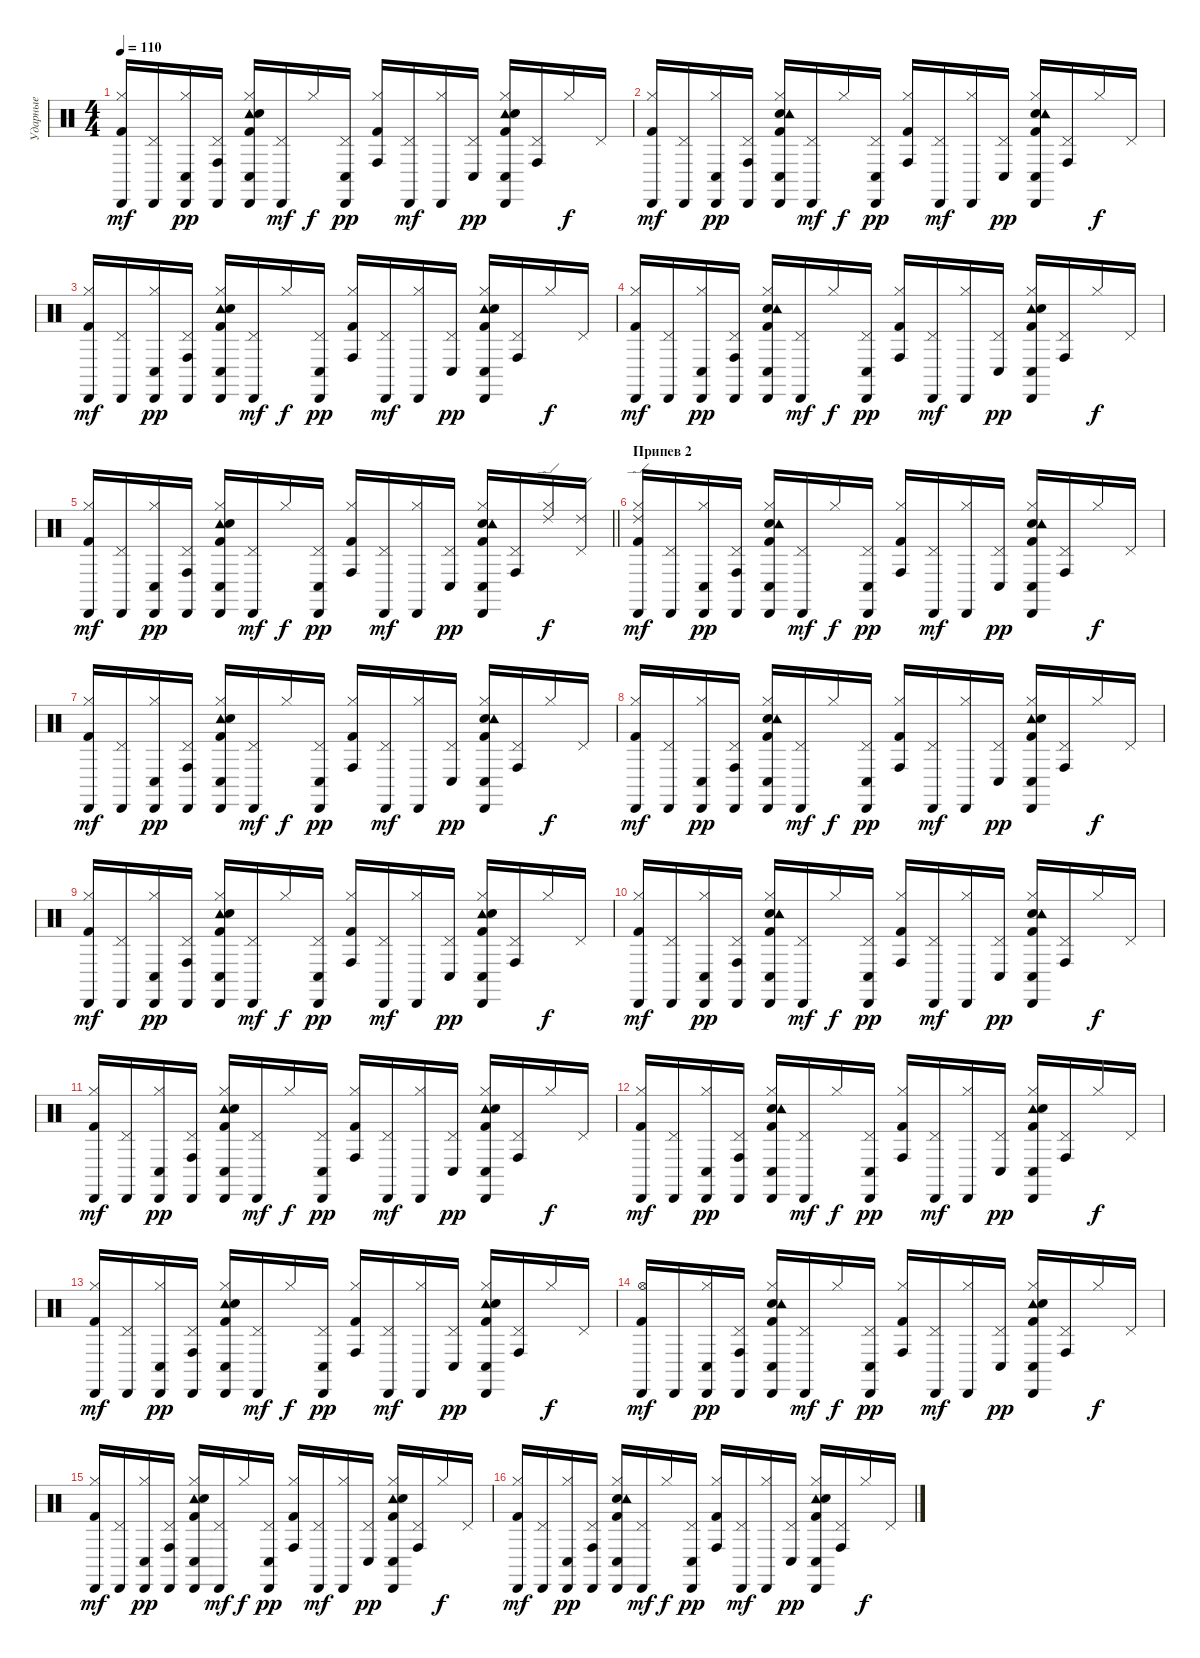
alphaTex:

\track ("Ударные" "Ударные") {instrument percussion}
\staff {score}
\articulation defaults
\ts (4 4)
\tempo 110
\clef neutral
\ks c
("Kick (hit) 2" "Hi-Hat (closed)" "Cabasa (hit)").16{dy mf} ("Pedal Hi-Hat (hit)" "Cabasa (hit)").16 ("Hi-Hat (closed)" "Cabasa (hit)" "Conga low (hit)").16{dy pp} ("Pedal Hi-Hat (hit)" "Cabasa (hit)" "Conga high (hit)").16 ("Tambourine (hit)" "Kick (hit) 2" "Snare (hit) 2" "Hi-Hat (closed)" "Cabasa (hit)" "Conga low (hit)").16 ("Pedal Hi-Hat (hit)" "Cabasa (hit)").16{dy mf} "Hi-Hat (closed)".16{dy f} ("Pedal Hi-Hat (hit)" "Cabasa (hit)" "Conga low (hit)").16{dy pp} ("Kick (hit) 2" "Hi-Hat (closed)" "Conga high (hit)").16 ("Pedal Hi-Hat (hit)" "Cabasa (hit)").16{dy mf} ("Hi-Hat (closed)" "Cabasa (hit)").16 ("Pedal Hi-Hat (hit)" "Conga low (hit)").16{dy pp} ("Tambourine (hit)" "Snare (hit) 2" "Kick (hit) 2" "Hi-Hat (closed)" "Cabasa (hit)" "Conga low (hit)").16 ("Pedal Hi-Hat (hit)" "Conga high (hit)").16 "Hi-Hat (closed)".16{dy f} "Pedal Hi-Hat (hit)".16 |
("Kick (hit) 2" "Hi-Hat (closed)" "Cabasa (hit)").16{dy mf} ("Pedal Hi-Hat (hit)" "Cabasa (hit)").16 ("Hi-Hat (closed)" "Cabasa (hit)" "Conga low (hit)").16{dy pp} ("Pedal Hi-Hat (hit)" "Cabasa (hit)" "Conga high (hit)").16 ("Snare (hit) 2" "Kick (hit) 2" "Tambourine (hit)" "Hi-Hat (closed)" "Cabasa (hit)" "Conga low (hit)").16 ("Pedal Hi-Hat (hit)" "Cabasa (hit)").16{dy mf} "Hi-Hat (closed)".16{dy f} ("Pedal Hi-Hat (hit)" "Cabasa (hit)" "Conga low (hit)").16{dy pp} ("Kick (hit) 2" "Hi-Hat (closed)" "Conga high (hit)").16 ("Pedal Hi-Hat (hit)" "Cabasa (hit)").16{dy mf} ("Hi-Hat (closed)" "Cabasa (hit)").16 ("Pedal Hi-Hat (hit)" "Conga low (hit)").16{dy pp} ("Snare (hit) 2" "Tambourine (hit)" "Kick (hit) 2" "Hi-Hat (closed)" "Cabasa (hit)" "Conga low (hit)").16 ("Pedal Hi-Hat (hit)" "Conga high (hit)").16 "Hi-Hat (closed)".16{dy f} "Pedal Hi-Hat (hit)".16 |
("Kick (hit) 2" "Hi-Hat (closed)" "Cabasa (hit)").16{dy mf} ("Pedal Hi-Hat (hit)" "Cabasa (hit)").16 ("Hi-Hat (closed)" "Cabasa (hit)" "Conga low (hit)").16{dy pp} ("Pedal Hi-Hat (hit)" "Cabasa (hit)" "Conga high (hit)").16 ("Tambourine (hit)" "Kick (hit) 2" "Snare (hit) 2" "Hi-Hat (closed)" "Cabasa (hit)" "Conga low (hit)").16 ("Pedal Hi-Hat (hit)" "Cabasa (hit)").16{dy mf} "Hi-Hat (closed)".16{dy f} ("Pedal Hi-Hat (hit)" "Cabasa (hit)" "Conga low (hit)").16{dy pp} ("Kick (hit) 2" "Hi-Hat (closed)" "Conga high (hit)").16 ("Pedal Hi-Hat (hit)" "Cabasa (hit)").16{dy mf} ("Hi-Hat (closed)" "Cabasa (hit)").16 ("Pedal Hi-Hat (hit)" "Conga low (hit)").16{dy pp} ("Tambourine (hit)" "Snare (hit) 2" "Kick (hit) 2" "Hi-Hat (closed)" "Cabasa (hit)" "Conga low (hit)").16 ("Pedal Hi-Hat (hit)" "Conga high (hit)").16 "Hi-Hat (closed)".16{dy f} "Pedal Hi-Hat (hit)".16 |
("Kick (hit) 2" "Hi-Hat (closed)" "Cabasa (hit)").16{dy mf} ("Pedal Hi-Hat (hit)" "Cabasa (hit)").16 ("Hi-Hat (closed)" "Cabasa (hit)" "Conga low (hit)").16{dy pp} ("Pedal Hi-Hat (hit)" "Cabasa (hit)" "Conga high (hit)").16 ("Kick (hit) 2" "Snare (hit) 2" "Tambourine (hit)" "Hi-Hat (closed)" "Cabasa (hit)" "Conga low (hit)").16 ("Pedal Hi-Hat (hit)" "Cabasa (hit)").16{dy mf} "Hi-Hat (closed)".16{dy f} ("Pedal Hi-Hat (hit)" "Cabasa (hit)" "Conga low (hit)").16{dy pp} ("Kick (hit) 2" "Hi-Hat (closed)" "Conga high (hit)").16 ("Pedal Hi-Hat (hit)" "Cabasa (hit)").16{dy mf} ("Hi-Hat (closed)" "Cabasa (hit)").16 ("Pedal Hi-Hat (hit)" "Conga low (hit)").16{dy pp} ("Tambourine (hit)" "Kick (hit) 2" "Snare (hit) 2" "Hi-Hat (closed)" "Cabasa (hit)" "Conga low (hit)").16 ("Pedal Hi-Hat (hit)" "Conga high (hit)").16 "Hi-Hat (closed)".16{dy f} "Pedal Hi-Hat (hit)".16 |
\barLineRight lightlight
("Kick (hit) 2" "Hi-Hat (closed)" "Cabasa (hit)").16{dy mf} ("Pedal Hi-Hat (hit)" "Cabasa (hit)").16 ("Hi-Hat (closed)" "Cabasa (hit)" "Conga low (hit)").16{dy pp} ("Pedal Hi-Hat (hit)" "Cabasa (hit)" "Conga high (hit)").16 ("Tambourine (hit)" "Snare (hit) 2" "Kick (hit) 2" "Hi-Hat (closed)" "Cabasa (hit)" "Conga low (hit)").16 ("Pedal Hi-Hat (hit)" "Cabasa (hit)").16{dy mf} "Hi-Hat (closed)".16{dy f} ("Pedal Hi-Hat (hit)" "Cabasa (hit)" "Conga low (hit)").16{dy pp} ("Kick (hit) 2" "Hi-Hat (closed)" "Conga high (hit)").16 ("Pedal Hi-Hat (hit)" "Cabasa (hit)").16{dy mf} ("Hi-Hat (closed)" "Cabasa (hit)").16 ("Pedal Hi-Hat (hit)" "Conga low (hit)").16{dy pp} ("Snare (hit) 2" "Tambourine (hit)" "Kick (hit) 2" "Hi-Hat (closed)" "Cabasa (hit)" "Conga low (hit)").16 ("Pedal Hi-Hat (hit)" "Conga high (hit)").16 ("Ride (edge) 2" "Hi-Hat (closed)").16{dy f} ("Ride (edge) 2" "Pedal Hi-Hat (hit)").16 |
\section ("" "Припев 2")
("Kick (hit) 2" "Hi-Hat (closed)" "Ride (edge) 2" "Cabasa (hit)").16{dy mf} ("Pedal Hi-Hat (hit)" "Cabasa (hit)").16 ("Hi-Hat (closed)" "Cabasa (hit)" "Conga low (hit)").16{dy pp} ("Pedal Hi-Hat (hit)" "Cabasa (hit)" "Conga high (hit)").16 ("Snare (hit) 2" "Kick (hit) 2" "Tambourine (hit)" "Hi-Hat (closed)" "Cabasa (hit)" "Conga low (hit)").16 ("Pedal Hi-Hat (hit)" "Cabasa (hit)").16{dy mf} "Hi-Hat (closed)".16{dy f} ("Pedal Hi-Hat (hit)" "Cabasa (hit)" "Conga low (hit)").16{dy pp} ("Kick (hit) 2" "Hi-Hat (closed)" "Conga high (hit)").16 ("Pedal Hi-Hat (hit)" "Cabasa (hit)").16{dy mf} ("Hi-Hat (closed)" "Cabasa (hit)").16 ("Pedal Hi-Hat (hit)" "Conga low (hit)").16{dy pp} ("Snare (hit) 2" "Tambourine (hit)" "Kick (hit) 2" "Hi-Hat (closed)" "Cabasa (hit)" "Conga low (hit)").16 ("Pedal Hi-Hat (hit)" "Conga high (hit)").16 "Hi-Hat (closed)".16{dy f} "Pedal Hi-Hat (hit)".16 |
("Kick (hit) 2" "Hi-Hat (closed)" "Cabasa (hit)").16{dy mf} ("Pedal Hi-Hat (hit)" "Cabasa (hit)").16 ("Hi-Hat (closed)" "Cabasa (hit)" "Conga low (hit)").16{dy pp} ("Pedal Hi-Hat (hit)" "Cabasa (hit)" "Conga high (hit)").16 ("Tambourine (hit)" "Snare (hit) 2" "Kick (hit) 2" "Hi-Hat (closed)" "Cabasa (hit)" "Conga low (hit)").16 ("Pedal Hi-Hat (hit)" "Cabasa (hit)").16{dy mf} "Hi-Hat (closed)".16{dy f} ("Pedal Hi-Hat (hit)" "Cabasa (hit)" "Conga low (hit)").16{dy pp} ("Kick (hit) 2" "Hi-Hat (closed)" "Conga high (hit)").16 ("Pedal Hi-Hat (hit)" "Cabasa (hit)").16{dy mf} ("Hi-Hat (closed)" "Cabasa (hit)").16 ("Pedal Hi-Hat (hit)" "Conga low (hit)").16{dy pp} ("Snare (hit) 2" "Tambourine (hit)" "Kick (hit) 2" "Hi-Hat (closed)" "Cabasa (hit)" "Conga low (hit)").16 ("Pedal Hi-Hat (hit)" "Conga high (hit)").16 "Hi-Hat (closed)".16{dy f} "Pedal Hi-Hat (hit)".16 |
("Kick (hit) 2" "Hi-Hat (closed)" "Cabasa (hit)").16{dy mf} ("Pedal Hi-Hat (hit)" "Cabasa (hit)").16 ("Hi-Hat (closed)" "Cabasa (hit)" "Conga low (hit)").16{dy pp} ("Pedal Hi-Hat (hit)" "Cabasa (hit)" "Conga high (hit)").16 ("Kick (hit) 2" "Snare (hit) 2" "Tambourine (hit)" "Hi-Hat (closed)" "Cabasa (hit)" "Conga low (hit)").16 ("Pedal Hi-Hat (hit)" "Cabasa (hit)").16{dy mf} "Hi-Hat (closed)".16{dy f} ("Pedal Hi-Hat (hit)" "Cabasa (hit)" "Conga low (hit)").16{dy pp} ("Kick (hit) 2" "Hi-Hat (closed)" "Conga high (hit)").16 ("Pedal Hi-Hat (hit)" "Cabasa (hit)").16{dy mf} ("Hi-Hat (closed)" "Cabasa (hit)").16 ("Pedal Hi-Hat (hit)" "Conga low (hit)").16{dy pp} ("Tambourine (hit)" "Kick (hit) 2" "Snare (hit) 2" "Hi-Hat (closed)" "Cabasa (hit)" "Conga low (hit)").16 ("Pedal Hi-Hat (hit)" "Conga high (hit)").16 "Hi-Hat (closed)".16{dy f} "Pedal Hi-Hat (hit)".16 |
("Kick (hit) 2" "Hi-Hat (closed)" "Cabasa (hit)").16{dy mf} ("Pedal Hi-Hat (hit)" "Cabasa (hit)").16 ("Hi-Hat (closed)" "Cabasa (hit)" "Conga low (hit)").16{dy pp} ("Pedal Hi-Hat (hit)" "Cabasa (hit)" "Conga high (hit)").16 ("Tambourine (hit)" "Snare (hit) 2" "Kick (hit) 2" "Hi-Hat (closed)" "Cabasa (hit)" "Conga low (hit)").16 ("Pedal Hi-Hat (hit)" "Cabasa (hit)").16{dy mf} "Hi-Hat (closed)".16{dy f} ("Pedal Hi-Hat (hit)" "Cabasa (hit)" "Conga low (hit)").16{dy pp} ("Kick (hit) 2" "Hi-Hat (closed)" "Conga high (hit)").16 ("Pedal Hi-Hat (hit)" "Cabasa (hit)").16{dy mf} ("Hi-Hat (closed)" "Cabasa (hit)").16 ("Pedal Hi-Hat (hit)" "Conga low (hit)").16{dy pp} ("Kick (hit) 2" "Tambourine (hit)" "Snare (hit) 2" "Hi-Hat (closed)" "Cabasa (hit)" "Conga low (hit)").16 ("Pedal Hi-Hat (hit)" "Conga high (hit)").16 "Hi-Hat (closed)".16{dy f} "Pedal Hi-Hat (hit)".16 |
("Kick (hit) 2" "Hi-Hat (closed)" "Cabasa (hit)").16{dy mf} ("Pedal Hi-Hat (hit)" "Cabasa (hit)").16 ("Hi-Hat (closed)" "Cabasa (hit)" "Conga low (hit)").16{dy pp} ("Pedal Hi-Hat (hit)" "Cabasa (hit)" "Conga high (hit)").16 ("Kick (hit) 2" "Snare (hit) 2" "Tambourine (hit)" "Hi-Hat (closed)" "Cabasa (hit)" "Conga low (hit)").16 ("Pedal Hi-Hat (hit)" "Cabasa (hit)").16{dy mf} "Hi-Hat (closed)".16{dy f} ("Pedal Hi-Hat (hit)" "Cabasa (hit)" "Conga low (hit)").16{dy pp} ("Kick (hit) 2" "Hi-Hat (closed)" "Conga high (hit)").16 ("Pedal Hi-Hat (hit)" "Cabasa (hit)").16{dy mf} ("Hi-Hat (closed)" "Cabasa (hit)").16 ("Pedal Hi-Hat (hit)" "Conga low (hit)").16{dy pp} ("Snare (hit) 2" "Tambourine (hit)" "Kick (hit) 2" "Hi-Hat (closed)" "Cabasa (hit)" "Conga low (hit)").16 ("Pedal Hi-Hat (hit)" "Conga high (hit)").16 "Hi-Hat (closed)".16{dy f} "Pedal Hi-Hat (hit)".16 |
("Kick (hit) 2" "Hi-Hat (closed)" "Cabasa (hit)").16{dy mf} ("Pedal Hi-Hat (hit)" "Cabasa (hit)").16 ("Hi-Hat (closed)" "Cabasa (hit)" "Conga low (hit)").16{dy pp} ("Pedal Hi-Hat (hit)" "Cabasa (hit)" "Conga high (hit)").16 ("Tambourine (hit)" "Kick (hit) 2" "Snare (hit) 2" "Hi-Hat (closed)" "Cabasa (hit)" "Conga low (hit)").16 ("Pedal Hi-Hat (hit)" "Cabasa (hit)").16{dy mf} "Hi-Hat (closed)".16{dy f} ("Pedal Hi-Hat (hit)" "Cabasa (hit)" "Conga low (hit)").16{dy pp} ("Kick (hit) 2" "Hi-Hat (closed)" "Conga high (hit)").16 ("Pedal Hi-Hat (hit)" "Cabasa (hit)").16{dy mf} ("Hi-Hat (closed)" "Cabasa (hit)").16 ("Pedal Hi-Hat (hit)" "Conga low (hit)").16{dy pp} ("Tambourine (hit)" "Snare (hit) 2" "Kick (hit) 2" "Hi-Hat (closed)" "Cabasa (hit)" "Conga low (hit)").16 ("Pedal Hi-Hat (hit)" "Conga high (hit)").16 "Hi-Hat (closed)".16{dy f} "Pedal Hi-Hat (hit)".16 |
("Kick (hit) 2" "Hi-Hat (closed)" "Cabasa (hit)").16{dy mf} ("Pedal Hi-Hat (hit)" "Cabasa (hit)").16 ("Hi-Hat (closed)" "Cabasa (hit)" "Conga low (hit)").16{dy pp} ("Pedal Hi-Hat (hit)" "Cabasa (hit)" "Conga high (hit)").16 ("Snare (hit) 2" "Kick (hit) 2" "Tambourine (hit)" "Hi-Hat (closed)" "Cabasa (hit)" "Conga low (hit)").16 ("Pedal Hi-Hat (hit)" "Cabasa (hit)").16{dy mf} "Hi-Hat (closed)".16{dy f} ("Pedal Hi-Hat (hit)" "Cabasa (hit)" "Conga low (hit)").16{dy pp} ("Kick (hit) 2" "Hi-Hat (closed)" "Conga high (hit)").16 ("Pedal Hi-Hat (hit)" "Cabasa (hit)").16{dy mf} ("Hi-Hat (closed)" "Cabasa (hit)").16 ("Pedal Hi-Hat (hit)" "Conga low (hit)").16{dy pp} ("Tambourine (hit)" "Snare (hit) 2" "Kick (hit) 2" "Hi-Hat (closed)" "Cabasa (hit)" "Conga low (hit)").16 ("Pedal Hi-Hat (hit)" "Conga high (hit)").16 "Hi-Hat (closed)".16{dy f} "Pedal Hi-Hat (hit)".16 |
("Kick (hit) 2" "Hi-Hat (closed)" "Cabasa (hit)").16{dy mf} ("Pedal Hi-Hat (hit)" "Cabasa (hit)").16 ("Hi-Hat (closed)" "Cabasa (hit)" "Conga low (hit)").16{dy pp} ("Pedal Hi-Hat (hit)" "Cabasa (hit)" "Conga high (hit)").16 ("Tambourine (hit)" "Kick (hit) 2" "Snare (hit) 2" "Hi-Hat (closed)" "Cabasa (hit)" "Conga low (hit)").16 ("Pedal Hi-Hat (hit)" "Cabasa (hit)").16{dy mf} "Hi-Hat (closed)".16{dy f} ("Pedal Hi-Hat (hit)" "Cabasa (hit)" "Conga low (hit)").16{dy pp} ("Kick (hit) 2" "Hi-Hat (closed)" "Conga high (hit)").16 ("Pedal Hi-Hat (hit)" "Cabasa (hit)").16{dy mf} ("Hi-Hat (closed)" "Cabasa (hit)").16 ("Pedal Hi-Hat (hit)" "Conga low (hit)").16{dy pp} ("Tambourine (hit)" "Kick (hit) 2" "Snare (hit) 2" "Hi-Hat (closed)" "Cabasa (hit)" "Conga low (hit)").16 ("Pedal Hi-Hat (hit)" "Conga high (hit)").16 "Hi-Hat (closed)".16{dy f} "Pedal Hi-Hat (hit)".16 |
("Kick (hit) 2" "Hi-Hat (open)" "Cabasa (hit)").16{dy mf} "Cabasa (hit)".16 ("Hi-Hat (closed)" "Cabasa (hit)" "Conga low (hit)").16{dy pp} ("Pedal Hi-Hat (hit)" "Cabasa (hit)" "Conga high (hit)").16 ("Kick (hit) 2" "Snare (hit) 2" "Tambourine (hit)" "Hi-Hat (closed)" "Cabasa (hit)" "Conga low (hit)").16 ("Pedal Hi-Hat (hit)" "Cabasa (hit)").16{dy mf} "Hi-Hat (closed)".16{dy f} ("Pedal Hi-Hat (hit)" "Cabasa (hit)" "Conga low (hit)").16{dy pp} ("Kick (hit) 2" "Hi-Hat (closed)" "Conga high (hit)").16 ("Pedal Hi-Hat (hit)" "Cabasa (hit)").16{dy mf} ("Hi-Hat (closed)" "Cabasa (hit)").16 ("Pedal Hi-Hat (hit)" "Conga low (hit)").16{dy pp} ("Kick (hit) 2" "Tambourine (hit)" "Snare (hit) 2" "Hi-Hat (closed)" "Cabasa (hit)" "Conga low (hit)").16 ("Pedal Hi-Hat (hit)" "Conga high (hit)").16 "Hi-Hat (closed)".16{dy f} "Pedal Hi-Hat (hit)".16 |
("Kick (hit) 2" "Hi-Hat (closed)" "Cabasa (hit)").16{dy mf} ("Pedal Hi-Hat (hit)" "Cabasa (hit)").16 ("Hi-Hat (closed)" "Cabasa (hit)" "Conga low (hit)").16{dy pp} ("Pedal Hi-Hat (hit)" "Cabasa (hit)" "Conga high (hit)").16 ("Tambourine (hit)" "Snare (hit) 2" "Kick (hit) 2" "Hi-Hat (closed)" "Cabasa (hit)" "Conga low (hit)").16 ("Pedal Hi-Hat (hit)" "Cabasa (hit)").16{dy mf} "Hi-Hat (closed)".16{dy f} ("Pedal Hi-Hat (hit)" "Cabasa (hit)" "Conga low (hit)").16{dy pp} ("Kick (hit) 2" "Hi-Hat (closed)" "Conga high (hit)").16 ("Pedal Hi-Hat (hit)" "Cabasa (hit)").16{dy mf} ("Hi-Hat (closed)" "Cabasa (hit)").16 ("Pedal Hi-Hat (hit)" "Conga low (hit)").16{dy pp} ("Kick (hit) 2" "Tambourine (hit)" "Snare (hit) 2" "Hi-Hat (closed)" "Cabasa (hit)" "Conga low (hit)").16 ("Pedal Hi-Hat (hit)" "Conga high (hit)").16 "Hi-Hat (closed)".16{dy f} "Pedal Hi-Hat (hit)".16 |
("Kick (hit) 2" "Hi-Hat (closed)" "Cabasa (hit)").16{dy mf} ("Pedal Hi-Hat (hit)" "Cabasa (hit)").16 ("Hi-Hat (closed)" "Cabasa (hit)" "Conga low (hit)").16{dy pp} ("Pedal Hi-Hat (hit)" "Cabasa (hit)" "Conga high (hit)").16 ("Kick (hit) 2" "Snare (hit) 2" "Tambourine (hit)" "Hi-Hat (closed)" "Cabasa (hit)" "Conga low (hit)").16 ("Pedal Hi-Hat (hit)" "Cabasa (hit)").16{dy mf} "Hi-Hat (closed)".16{dy f} ("Pedal Hi-Hat (hit)" "Cabasa (hit)" "Conga low (hit)").16{dy pp} ("Kick (hit) 2" "Hi-Hat (closed)" "Conga high (hit)").16 ("Pedal Hi-Hat (hit)" "Cabasa (hit)").16{dy mf} ("Hi-Hat (closed)" "Cabasa (hit)").16 ("Pedal Hi-Hat (hit)" "Conga low (hit)").16{dy pp} ("Tambourine (hit)" "Kick (hit) 2" "Snare (hit) 2" "Hi-Hat (closed)" "Cabasa (hit)" "Conga low (hit)").16 ("Pedal Hi-Hat (hit)" "Conga high (hit)").16 "Hi-Hat (closed)".16{dy f} "Pedal Hi-Hat (hit)".16
